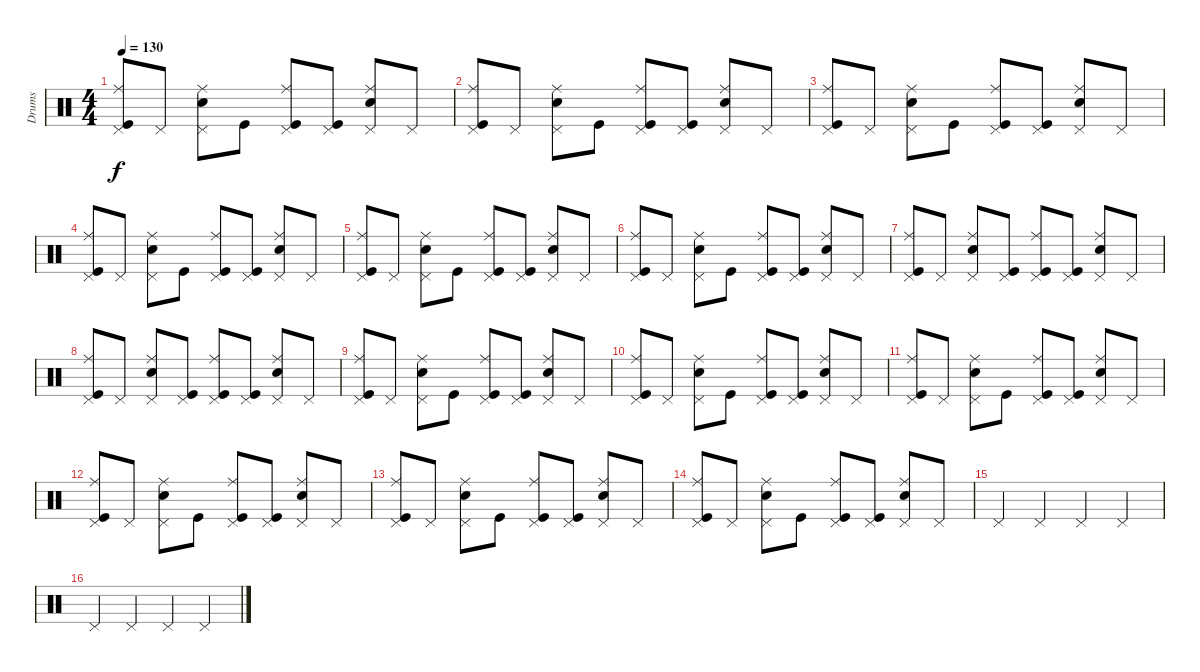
\track ("Drums" "Drums") {instrument percussion}
\staff {score}
\articulation defaults
\ts (4 4)
\tempo 130
\clef neutral
\ks c
("Ride (middle)" "Pedal Hi-Hat (hit)" "Kick (hit)").8{dy f} "Pedal Hi-Hat (hit)".8 ("Ride (middle)" "Pedal Hi-Hat (hit)" "Electric Snare (hit)").8 "Kick (hit)".8 ("Ride (middle)" "Pedal Hi-Hat (hit)" "Kick (hit)").8 ("Pedal Hi-Hat (hit)" "Kick (hit)").8 ("Ride (middle)" "Pedal Hi-Hat (hit)" "Electric Snare (hit)").8 "Pedal Hi-Hat (hit)".8 |
("Ride (middle)" "Pedal Hi-Hat (hit)" "Kick (hit)").8 "Pedal Hi-Hat (hit)".8 ("Ride (middle)" "Pedal Hi-Hat (hit)" "Electric Snare (hit)").8 "Kick (hit)".8 ("Ride (middle)" "Pedal Hi-Hat (hit)" "Kick (hit)").8 ("Pedal Hi-Hat (hit)" "Kick (hit)").8 ("Ride (middle)" "Pedal Hi-Hat (hit)" "Electric Snare (hit)").8 "Pedal Hi-Hat (hit)".8 |
("Ride (middle)" "Pedal Hi-Hat (hit)" "Kick (hit)").8 "Pedal Hi-Hat (hit)".8 ("Ride (middle)" "Pedal Hi-Hat (hit)" "Electric Snare (hit)").8 "Kick (hit)".8 ("Ride (middle)" "Pedal Hi-Hat (hit)" "Kick (hit)").8 ("Pedal Hi-Hat (hit)" "Kick (hit)").8 ("Ride (middle)" "Pedal Hi-Hat (hit)" "Electric Snare (hit)").8 "Pedal Hi-Hat (hit)".8 |
("Ride (middle)" "Pedal Hi-Hat (hit)" "Kick (hit)").8 "Pedal Hi-Hat (hit)".8 ("Ride (middle)" "Pedal Hi-Hat (hit)" "Electric Snare (hit)").8 "Kick (hit)".8 ("Ride (middle)" "Pedal Hi-Hat (hit)" "Kick (hit)").8 ("Pedal Hi-Hat (hit)" "Kick (hit)").8 ("Ride (middle)" "Pedal Hi-Hat (hit)" "Electric Snare (hit)").8 "Pedal Hi-Hat (hit)".8 |
("Ride (middle)" "Pedal Hi-Hat (hit)" "Kick (hit)").8 "Pedal Hi-Hat (hit)".8 ("Ride (middle)" "Pedal Hi-Hat (hit)" "Electric Snare (hit)").8 "Kick (hit)".8 ("Ride (middle)" "Pedal Hi-Hat (hit)" "Kick (hit)").8 ("Pedal Hi-Hat (hit)" "Kick (hit)").8 ("Ride (middle)" "Pedal Hi-Hat (hit)" "Electric Snare (hit)").8 "Pedal Hi-Hat (hit)".8 |
("Ride (middle)" "Pedal Hi-Hat (hit)" "Kick (hit)").8 "Pedal Hi-Hat (hit)".8 ("Ride (middle)" "Pedal Hi-Hat (hit)" "Electric Snare (hit)").8 "Kick (hit)".8 ("Ride (middle)" "Pedal Hi-Hat (hit)" "Kick (hit)").8 ("Pedal Hi-Hat (hit)" "Kick (hit)").8 ("Ride (middle)" "Pedal Hi-Hat (hit)" "Electric Snare (hit)").8 "Pedal Hi-Hat (hit)".8 |
("Ride (middle)" "Pedal Hi-Hat (hit)" "Kick (hit)").8 "Pedal Hi-Hat (hit)".8 ("Ride (middle)" "Pedal Hi-Hat (hit)" "Electric Snare (hit)").8 ("Pedal Hi-Hat (hit)" "Kick (hit)").8 ("Ride (middle)" "Pedal Hi-Hat (hit)" "Kick (hit)").8 ("Pedal Hi-Hat (hit)" "Kick (hit)").8 ("Ride (middle)" "Pedal Hi-Hat (hit)" "Electric Snare (hit)").8 "Pedal Hi-Hat (hit)".8 |
("Ride (middle)" "Pedal Hi-Hat (hit)" "Kick (hit)").8 "Pedal Hi-Hat (hit)".8 ("Ride (middle)" "Pedal Hi-Hat (hit)" "Electric Snare (hit)").8 ("Pedal Hi-Hat (hit)" "Kick (hit)").8 ("Ride (middle)" "Pedal Hi-Hat (hit)" "Kick (hit)").8 ("Pedal Hi-Hat (hit)" "Kick (hit)").8 ("Ride (middle)" "Pedal Hi-Hat (hit)" "Electric Snare (hit)").8 "Pedal Hi-Hat (hit)".8 |
("Ride (middle)" "Pedal Hi-Hat (hit)" "Kick (hit)").8 "Pedal Hi-Hat (hit)".8 ("Ride (middle)" "Pedal Hi-Hat (hit)" "Electric Snare (hit)").8 "Kick (hit)".8 ("Ride (middle)" "Pedal Hi-Hat (hit)" "Kick (hit)").8 ("Pedal Hi-Hat (hit)" "Kick (hit)").8 ("Ride (middle)" "Pedal Hi-Hat (hit)" "Electric Snare (hit)").8 "Pedal Hi-Hat (hit)".8 |
("Ride (middle)" "Pedal Hi-Hat (hit)" "Kick (hit)").8 "Pedal Hi-Hat (hit)".8 ("Ride (middle)" "Pedal Hi-Hat (hit)" "Electric Snare (hit)").8 "Kick (hit)".8 ("Ride (middle)" "Pedal Hi-Hat (hit)" "Kick (hit)").8 ("Pedal Hi-Hat (hit)" "Kick (hit)").8 ("Ride (middle)" "Pedal Hi-Hat (hit)" "Electric Snare (hit)").8 "Pedal Hi-Hat (hit)".8 |
("Ride (middle)" "Pedal Hi-Hat (hit)" "Kick (hit)").8 "Pedal Hi-Hat (hit)".8 ("Ride (middle)" "Pedal Hi-Hat (hit)" "Electric Snare (hit)").8 "Kick (hit)".8 ("Ride (middle)" "Pedal Hi-Hat (hit)" "Kick (hit)").8 ("Pedal Hi-Hat (hit)" "Kick (hit)").8 ("Ride (middle)" "Pedal Hi-Hat (hit)" "Electric Snare (hit)").8 "Pedal Hi-Hat (hit)".8 |
("Ride (middle)" "Pedal Hi-Hat (hit)" "Kick (hit)").8 "Pedal Hi-Hat (hit)".8 ("Ride (middle)" "Pedal Hi-Hat (hit)" "Electric Snare (hit)").8 "Kick (hit)".8 ("Ride (middle)" "Pedal Hi-Hat (hit)" "Kick (hit)").8 ("Pedal Hi-Hat (hit)" "Kick (hit)").8 ("Ride (middle)" "Pedal Hi-Hat (hit)" "Electric Snare (hit)").8 "Pedal Hi-Hat (hit)".8 |
("Ride (middle)" "Pedal Hi-Hat (hit)" "Kick (hit)").8 "Pedal Hi-Hat (hit)".8 ("Ride (middle)" "Pedal Hi-Hat (hit)" "Electric Snare (hit)").8 "Kick (hit)".8 ("Ride (middle)" "Pedal Hi-Hat (hit)" "Kick (hit)").8 ("Pedal Hi-Hat (hit)" "Kick (hit)").8 ("Ride (middle)" "Pedal Hi-Hat (hit)" "Electric Snare (hit)").8 "Pedal Hi-Hat (hit)".8 |
("Ride (middle)" "Pedal Hi-Hat (hit)" "Kick (hit)").8 "Pedal Hi-Hat (hit)".8 ("Ride (middle)" "Pedal Hi-Hat (hit)" "Electric Snare (hit)").8 "Kick (hit)".8 ("Ride (middle)" "Pedal Hi-Hat (hit)" "Kick (hit)").8 ("Pedal Hi-Hat (hit)" "Kick (hit)").8 ("Ride (middle)" "Pedal Hi-Hat (hit)" "Electric Snare (hit)").8 "Pedal Hi-Hat (hit)".8 |
"Pedal Hi-Hat (hit)".4 "Pedal Hi-Hat (hit)".4 "Pedal Hi-Hat (hit)".4 "Pedal Hi-Hat (hit)".4 |
"Pedal Hi-Hat (hit)".4 "Pedal Hi-Hat (hit)".4 "Pedal Hi-Hat (hit)".4 "Pedal Hi-Hat (hit)".4
